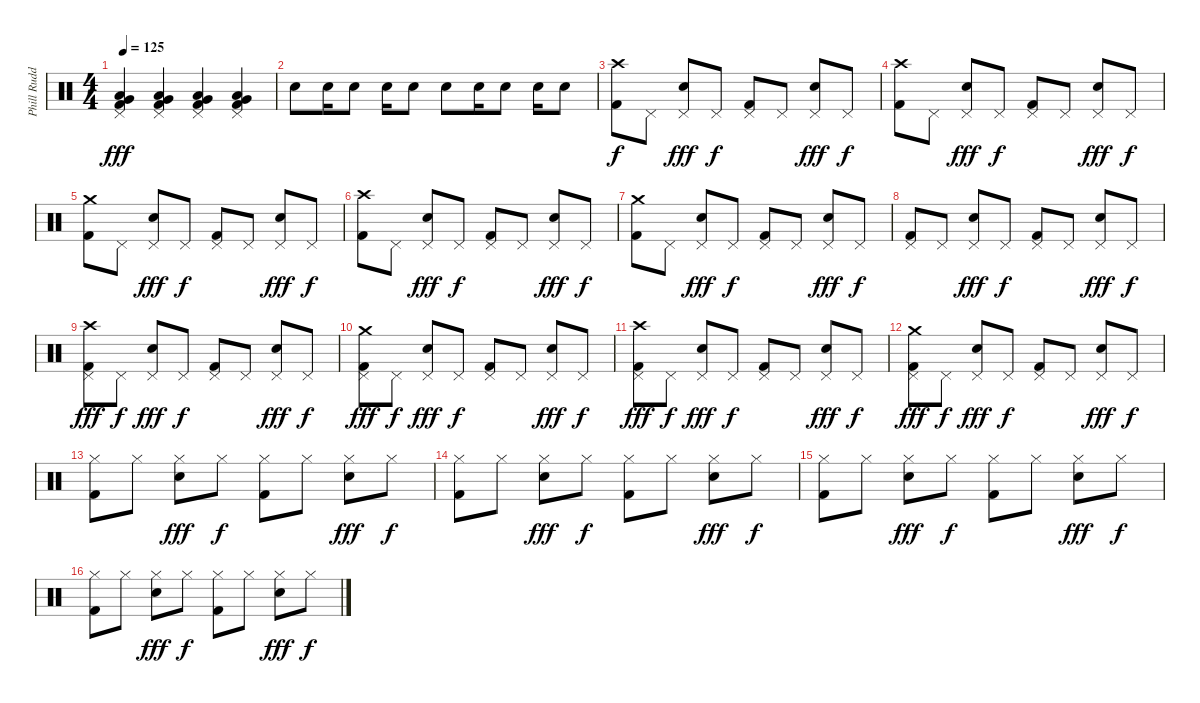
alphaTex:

\track ("Phill Rudd" "Phill Rudd") {instrument percussion}
\staff {score}
\articulation defaults
\ts (4 4)
\tempo 125
\clef neutral
\ks c
("Kick (hit) 2" "Very Low Tom (hit)" "Low Floor Tom (hit)" "Pedal Hi-Hat (hit)").4{dy fff} ("Kick (hit) 2" "Very Low Tom (hit)" "Low Floor Tom (hit)" "Pedal Hi-Hat (hit)").4 ("Kick (hit) 2" "Very Low Tom (hit)" "Low Floor Tom (hit)" "Pedal Hi-Hat (hit)").4 ("Kick (hit) 2" "Very Low Tom (hit)" "Low Floor Tom (hit)" "Pedal Hi-Hat (hit)").4 |
"Electric Snare (hit)".8 "Electric Snare (hit)".16 "Electric Snare (hit)".8 "Electric Snare (hit)".16 "Electric Snare (hit)".8 "Electric Snare (hit)".8 "Electric Snare (hit)".16 "Electric Snare (hit)".8 "Electric Snare (hit)".16 "Electric Snare (hit)".8 |
("Crash high (hit)" "Kick (hit) 2").8{dy f} "Pedal Hi-Hat (hit)".8 ("Pedal Hi-Hat (hit)" "Electric Snare (hit)").8{dy fff} "Pedal Hi-Hat (hit)".8{dy f} ("Pedal Hi-Hat (hit)" "Kick (hit) 2").8 "Pedal Hi-Hat (hit)".8 ("Pedal Hi-Hat (hit)" "Electric Snare (hit)").8{dy fff} "Pedal Hi-Hat (hit)".8{dy f} |
("Crash high (hit)" "Kick (hit) 2").8 "Pedal Hi-Hat (hit)".8 ("Pedal Hi-Hat (hit)" "Electric Snare (hit)").8{dy fff} "Pedal Hi-Hat (hit)".8{dy f} ("Pedal Hi-Hat (hit)" "Kick (hit) 2").8 "Pedal Hi-Hat (hit)".8 ("Pedal Hi-Hat (hit)" "Electric Snare (hit)").8{dy fff} "Pedal Hi-Hat (hit)".8{dy f} |
("Crash medium (hit)" "Kick (hit) 2").8 "Pedal Hi-Hat (hit)".8 ("Pedal Hi-Hat (hit)" "Electric Snare (hit)").8{dy fff} "Pedal Hi-Hat (hit)".8{dy f} ("Pedal Hi-Hat (hit)" "Kick (hit) 2").8 "Pedal Hi-Hat (hit)".8 ("Pedal Hi-Hat (hit)" "Electric Snare (hit)").8{dy fff} "Pedal Hi-Hat (hit)".8{dy f} |
("Crash high (hit)" "Kick (hit) 2").8 "Pedal Hi-Hat (hit)".8 ("Pedal Hi-Hat (hit)" "Electric Snare (hit)").8{dy fff} "Pedal Hi-Hat (hit)".8{dy f} ("Pedal Hi-Hat (hit)" "Kick (hit) 2").8 "Pedal Hi-Hat (hit)".8 ("Pedal Hi-Hat (hit)" "Electric Snare (hit)").8{dy fff} "Pedal Hi-Hat (hit)".8{dy f} |
("Crash medium (hit)" "Kick (hit) 2").8 "Pedal Hi-Hat (hit)".8 ("Pedal Hi-Hat (hit)" "Electric Snare (hit)").8{dy fff} "Pedal Hi-Hat (hit)".8{dy f} ("Pedal Hi-Hat (hit)" "Kick (hit) 2").8 "Pedal Hi-Hat (hit)".8 ("Pedal Hi-Hat (hit)" "Electric Snare (hit)").8{dy fff} "Pedal Hi-Hat (hit)".8{dy f} |
("Pedal Hi-Hat (hit)" "Kick (hit) 2").8 "Pedal Hi-Hat (hit)".8 ("Pedal Hi-Hat (hit)" "Electric Snare (hit)").8{dy fff} "Pedal Hi-Hat (hit)".8{dy f} ("Pedal Hi-Hat (hit)" "Kick (hit) 2").8 "Pedal Hi-Hat (hit)".8 ("Pedal Hi-Hat (hit)" "Electric Snare (hit)").8{dy fff} "Pedal Hi-Hat (hit)".8{dy f} |
("Pedal Hi-Hat (hit)" "Kick (hit) 2" "Crash high (hit)").8{dy fff} "Pedal Hi-Hat (hit)".8{dy f} ("Pedal Hi-Hat (hit)" "Electric Snare (hit)").8{dy fff} "Pedal Hi-Hat (hit)".8{dy f} ("Pedal Hi-Hat (hit)" "Kick (hit) 2").8 "Pedal Hi-Hat (hit)".8 ("Pedal Hi-Hat (hit)" "Electric Snare (hit)").8{dy fff} "Pedal Hi-Hat (hit)".8{dy f} |
("Pedal Hi-Hat (hit)" "Kick (hit) 2" "Crash medium (hit)").8{dy fff} "Pedal Hi-Hat (hit)".8{dy f} ("Pedal Hi-Hat (hit)" "Electric Snare (hit)").8{dy fff} "Pedal Hi-Hat (hit)".8{dy f} ("Pedal Hi-Hat (hit)" "Kick (hit) 2").8 "Pedal Hi-Hat (hit)".8 ("Pedal Hi-Hat (hit)" "Electric Snare (hit)").8{dy fff} "Pedal Hi-Hat (hit)".8{dy f} |
("Pedal Hi-Hat (hit)" "Kick (hit) 2" "Crash high (hit)").8{dy fff} "Pedal Hi-Hat (hit)".8{dy f} ("Pedal Hi-Hat (hit)" "Electric Snare (hit)").8{dy fff} "Pedal Hi-Hat (hit)".8{dy f} ("Pedal Hi-Hat (hit)" "Kick (hit) 2").8 "Pedal Hi-Hat (hit)".8 ("Pedal Hi-Hat (hit)" "Electric Snare (hit)").8{dy fff} "Pedal Hi-Hat (hit)".8{dy f} |
("Pedal Hi-Hat (hit)" "Kick (hit) 2" "Crash medium (hit)").8{dy fff} "Pedal Hi-Hat (hit)".8{dy f} ("Pedal Hi-Hat (hit)" "Electric Snare (hit)").8{dy fff} "Pedal Hi-Hat (hit)".8{dy f} ("Pedal Hi-Hat (hit)" "Kick (hit) 2").8 "Pedal Hi-Hat (hit)".8 ("Pedal Hi-Hat (hit)" "Electric Snare (hit)").8{dy fff} "Pedal Hi-Hat (hit)".8{dy f} |
("Hi-Hat (closed)" "Kick (hit) 2").8 "Hi-Hat (closed)".8 ("Hi-Hat (closed)" "Electric Snare (hit)").8{dy fff} "Hi-Hat (closed)".8{dy f} ("Hi-Hat (closed)" "Kick (hit) 2").8 "Hi-Hat (closed)".8 ("Hi-Hat (closed)" "Electric Snare (hit)").8{dy fff} "Hi-Hat (closed)".8{dy f} |
("Hi-Hat (closed)" "Kick (hit) 2").8 "Hi-Hat (closed)".8 ("Hi-Hat (closed)" "Electric Snare (hit)").8{dy fff} "Hi-Hat (closed)".8{dy f} ("Hi-Hat (closed)" "Kick (hit) 2").8 "Hi-Hat (closed)".8 ("Hi-Hat (closed)" "Electric Snare (hit)").8{dy fff} "Hi-Hat (closed)".8{dy f} |
("Hi-Hat (closed)" "Kick (hit) 2").8 "Hi-Hat (closed)".8 ("Hi-Hat (closed)" "Electric Snare (hit)").8{dy fff} "Hi-Hat (closed)".8{dy f} ("Hi-Hat (closed)" "Kick (hit) 2").8 "Hi-Hat (closed)".8 ("Hi-Hat (closed)" "Electric Snare (hit)").8{dy fff} "Hi-Hat (closed)".8{dy f} |
("Hi-Hat (closed)" "Kick (hit) 2").8 "Hi-Hat (closed)".8 ("Hi-Hat (closed)" "Electric Snare (hit)").8{dy fff} "Hi-Hat (closed)".8{dy f} ("Hi-Hat (closed)" "Kick (hit) 2").8 "Hi-Hat (closed)".8 ("Hi-Hat (closed)" "Electric Snare (hit)").8{dy fff} "Hi-Hat (closed)".8{dy f}
